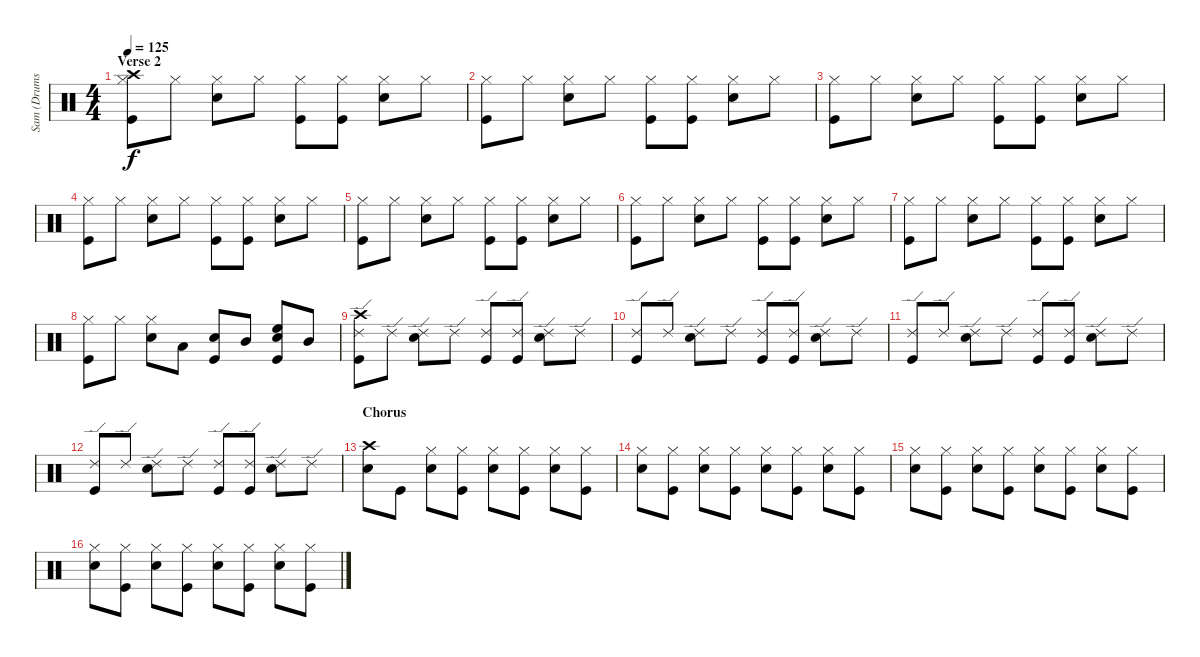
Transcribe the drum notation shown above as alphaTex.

\track ("Sam (Drums)" "Sam (Drums") {instrument percussion}
\staff {score}
\articulation defaults
\ts (4 4)
\section ("" "Verse 2")
\tempo 125
\clef neutral
\ks c
("Crash high (hit)" "Hi-Hat (closed)" "Kick (hit)").8{dy f} "Hi-Hat (closed)".8 ("Hi-Hat (closed)" "Snare (hit) 2").8 "Hi-Hat (closed)".8 ("Hi-Hat (closed)" "Kick (hit)").8 ("Hi-Hat (closed)" "Kick (hit)").8 ("Hi-Hat (closed)" "Snare (hit) 2").8 "Hi-Hat (closed)".8 |
("Hi-Hat (closed)" "Kick (hit)").8 "Hi-Hat (closed)".8 ("Hi-Hat (closed)" "Snare (hit) 2").8 "Hi-Hat (closed)".8 ("Hi-Hat (closed)" "Kick (hit)").8 ("Hi-Hat (closed)" "Kick (hit)").8 ("Hi-Hat (closed)" "Snare (hit) 2").8 "Hi-Hat (closed)".8 |
("Hi-Hat (closed)" "Kick (hit)").8 "Hi-Hat (closed)".8 ("Hi-Hat (closed)" "Snare (hit) 2").8 "Hi-Hat (closed)".8 ("Hi-Hat (closed)" "Kick (hit)").8 ("Hi-Hat (closed)" "Kick (hit)").8 ("Hi-Hat (closed)" "Snare (hit) 2").8 "Hi-Hat (closed)".8 |
("Hi-Hat (closed)" "Kick (hit)").8 "Hi-Hat (closed)".8 ("Hi-Hat (closed)" "Snare (hit) 2").8 "Hi-Hat (closed)".8 ("Hi-Hat (closed)" "Kick (hit)").8 ("Hi-Hat (closed)" "Kick (hit)").8 ("Hi-Hat (closed)" "Snare (hit) 2").8 "Hi-Hat (closed)".8 |
("Hi-Hat (closed)" "Kick (hit)").8 "Hi-Hat (closed)".8 ("Hi-Hat (closed)" "Snare (hit) 2").8 "Hi-Hat (closed)".8 ("Hi-Hat (closed)" "Kick (hit)").8 ("Hi-Hat (closed)" "Kick (hit)").8 ("Hi-Hat (closed)" "Snare (hit) 2").8 "Hi-Hat (closed)".8 |
("Hi-Hat (closed)" "Kick (hit)").8 "Hi-Hat (closed)".8 ("Hi-Hat (closed)" "Snare (hit) 2").8 "Hi-Hat (closed)".8 ("Hi-Hat (closed)" "Kick (hit)").8 ("Hi-Hat (closed)" "Kick (hit)").8 ("Hi-Hat (closed)" "Snare (hit) 2").8 "Hi-Hat (closed)".8 |
("Hi-Hat (closed)" "Kick (hit)").8 "Hi-Hat (closed)".8 ("Hi-Hat (closed)" "Snare (hit) 2").8 "Hi-Hat (closed)".8 ("Hi-Hat (closed)" "Kick (hit)").8 ("Hi-Hat (closed)" "Kick (hit)").8 ("Hi-Hat (closed)" "Snare (hit) 2").8 "Hi-Hat (closed)".8 |
("Hi-Hat (closed)" "Kick (hit)").8 "Hi-Hat (closed)".8 ("Hi-Hat (closed)" "Snare (hit) 2").8 "Low Tom (hit)".8 ("Snare (hit) 2" "Kick (hit)").8 "Mid Tom (hit)".8 ("High Floor Tom (hit)" "Snare (hit) 2" "Kick (hit)").8 "Mid Tom (hit)".8 |
("Crash high (hit)" "Ride (edge) 2" "Kick (hit)").8 "Ride (edge) 2".8 ("Ride (edge) 2" "Snare (hit) 2").8 "Ride (edge) 2".8 ("Ride (edge) 2" "Kick (hit)").8 ("Ride (edge) 2" "Kick (hit)").8 ("Ride (edge) 2" "Snare (hit) 2").8 "Ride (edge) 2".8 |
("Ride (edge) 2" "Kick (hit)").8 "Ride (edge) 2".8 ("Ride (edge) 2" "Snare (hit) 2").8 "Ride (edge) 2".8 ("Ride (edge) 2" "Kick (hit)").8 ("Ride (edge) 2" "Kick (hit)").8 ("Ride (edge) 2" "Snare (hit) 2").8 "Ride (edge) 2".8 |
("Ride (edge) 2" "Kick (hit)").8 "Ride (edge) 2".8 ("Ride (edge) 2" "Snare (hit) 2").8 "Ride (edge) 2".8 ("Ride (edge) 2" "Kick (hit)").8 ("Ride (edge) 2" "Kick (hit)").8 ("Ride (edge) 2" "Snare (hit) 2").8 "Ride (edge) 2".8 |
("Ride (edge) 2" "Kick (hit)").8 "Ride (edge) 2".8 ("Ride (edge) 2" "Snare (hit) 2").8 "Ride (edge) 2".8 ("Ride (edge) 2" "Kick (hit)").8 ("Ride (edge) 2" "Kick (hit)").8 ("Ride (edge) 2" "Snare (hit) 2").8 "Ride (edge) 2".8 |
\section ("" "Chorus")
("Crash high (hit)" "Snare (hit) 2").8 "Kick (hit)".8 ("Hi-Hat (closed)" "Snare (hit) 2").8 ("Hi-Hat (closed)" "Kick (hit)").8 ("Hi-Hat (closed)" "Snare (hit) 2").8 ("Hi-Hat (closed)" "Kick (hit)").8 ("Hi-Hat (closed)" "Snare (hit) 2").8 ("Hi-Hat (closed)" "Kick (hit)").8 |
("Hi-Hat (closed)" "Snare (hit) 2").8 ("Hi-Hat (closed)" "Kick (hit)").8 ("Hi-Hat (closed)" "Snare (hit) 2").8 ("Hi-Hat (closed)" "Kick (hit)").8 ("Hi-Hat (closed)" "Snare (hit) 2").8 ("Hi-Hat (closed)" "Kick (hit)").8 ("Hi-Hat (closed)" "Snare (hit) 2").8 ("Hi-Hat (closed)" "Kick (hit)").8 |
("Hi-Hat (closed)" "Snare (hit) 2").8 ("Hi-Hat (closed)" "Kick (hit)").8 ("Hi-Hat (closed)" "Snare (hit) 2").8 ("Hi-Hat (closed)" "Kick (hit)").8 ("Hi-Hat (closed)" "Snare (hit) 2").8 ("Hi-Hat (closed)" "Kick (hit)").8 ("Hi-Hat (closed)" "Snare (hit) 2").8 ("Hi-Hat (closed)" "Kick (hit)").8 |
("Hi-Hat (closed)" "Snare (hit) 2").8 ("Hi-Hat (closed)" "Kick (hit)").8 ("Hi-Hat (closed)" "Snare (hit) 2").8 ("Hi-Hat (closed)" "Kick (hit)").8 ("Hi-Hat (closed)" "Snare (hit) 2").8 ("Hi-Hat (closed)" "Kick (hit)").8 ("Hi-Hat (closed)" "Snare (hit) 2").8 ("Hi-Hat (closed)" "Kick (hit)").8
